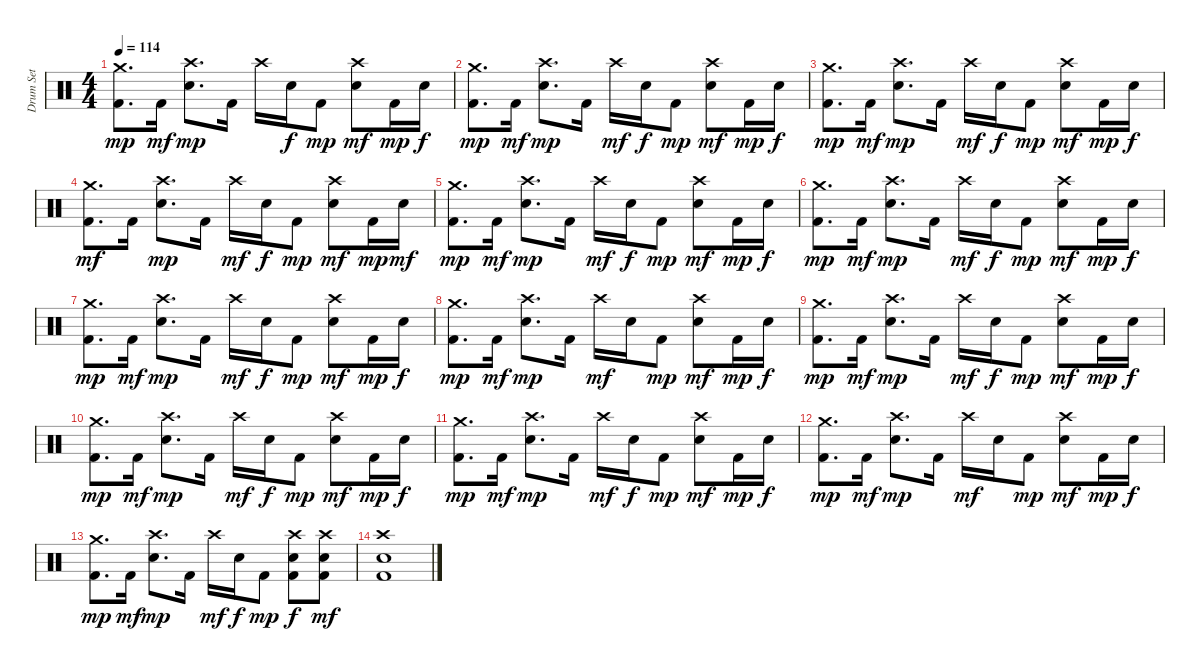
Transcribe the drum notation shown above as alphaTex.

\track ("Drum Set" "Drum Set") {instrument percussion}
\staff {score}
\articulation defaults
\ts (4 4)
\tempo 114
\clef neutral
\ks c
("Kick (hit) 2" "Crash medium (hit)").8{d dy mp} "Kick (hit) 2".16{dy mf} ("Snare (hit) 2" "Crash high (hit)").8{d dy mp} "Kick (hit) 2".16 "Crash high (hit)".16 "Snare (hit) 2".16{dy f} "Kick (hit) 2".8{dy mp} ("Snare (hit) 2" "Crash high (hit)").8{dy mf} "Kick (hit) 2".16{dy mp} "Snare (hit) 2".16{dy f} |
("Kick (hit) 2" "Crash medium (hit)").8{d dy mp} "Kick (hit) 2".16{dy mf} ("Snare (hit) 2" "Crash high (hit)").8{d dy mp} "Kick (hit) 2".16 "Crash high (hit)".16{dy mf} "Snare (hit) 2".16{dy f} "Kick (hit) 2".8{dy mp} ("Snare (hit) 2" "Crash high (hit)").8{dy mf} "Kick (hit) 2".16{dy mp} "Snare (hit) 2".16{dy f} |
("Kick (hit) 2" "Crash medium (hit)").8{d dy mp} "Kick (hit) 2".16{dy mf} ("Snare (hit) 2" "Crash high (hit)").8{d dy mp} "Kick (hit) 2".16 "Crash high (hit)".16{dy mf} "Snare (hit) 2".16{dy f} "Kick (hit) 2".8{dy mp} ("Snare (hit) 2" "Crash high (hit)").8{dy mf} "Kick (hit) 2".16{dy mp} "Snare (hit) 2".16{dy f} |
("Kick (hit) 2" "Crash medium (hit)").8{d dy mf} "Kick (hit) 2".16 ("Snare (hit) 2" "Crash high (hit)").8{d dy mp} "Kick (hit) 2".16 "Crash high (hit)".16{dy mf} "Snare (hit) 2".16{dy f} "Kick (hit) 2".8{dy mp} ("Snare (hit) 2" "Crash high (hit)").8{dy mf} "Kick (hit) 2".16{dy mp} "Snare (hit) 2".16{dy mf} |
("Kick (hit) 2" "Crash medium (hit)").8{d dy mp} "Kick (hit) 2".16{dy mf} ("Snare (hit) 2" "Crash high (hit)").8{d dy mp} "Kick (hit) 2".16 "Crash high (hit)".16{dy mf} "Snare (hit) 2".16{dy f} "Kick (hit) 2".8{dy mp} ("Snare (hit) 2" "Crash high (hit)").8{dy mf} "Kick (hit) 2".16{dy mp} "Snare (hit) 2".16{dy f} |
("Kick (hit) 2" "Crash medium (hit)").8{d dy mp} "Kick (hit) 2".16{dy mf} ("Snare (hit) 2" "Crash high (hit)").8{d dy mp} "Kick (hit) 2".16 "Crash high (hit)".16{dy mf} "Snare (hit) 2".16{dy f} "Kick (hit) 2".8{dy mp} ("Snare (hit) 2" "Crash high (hit)").8{dy mf} "Kick (hit) 2".16{dy mp} "Snare (hit) 2".16{dy f} |
("Kick (hit) 2" "Crash medium (hit)").8{d dy mp} "Kick (hit) 2".16{dy mf} ("Snare (hit) 2" "Crash high (hit)").8{d dy mp} "Kick (hit) 2".16 "Crash high (hit)".16{dy mf} "Snare (hit) 2".16{dy f} "Kick (hit) 2".8{dy mp} ("Snare (hit) 2" "Crash high (hit)").8{dy mf} "Kick (hit) 2".16{dy mp} "Snare (hit) 2".16{dy f} |
("Kick (hit) 2" "Crash medium (hit)").8{d dy mp} "Kick (hit) 2".16{dy mf} ("Snare (hit) 2" "Crash high (hit)").8{d dy mp} "Kick (hit) 2".16 "Crash high (hit)".16{dy mf} "Snare (hit) 2".16 "Kick (hit) 2".8{dy mp} ("Snare (hit) 2" "Crash high (hit)").8{dy mf} "Kick (hit) 2".16{dy mp} "Snare (hit) 2".16{dy f} |
("Kick (hit) 2" "Crash medium (hit)").8{d dy mp} "Kick (hit) 2".16{dy mf} ("Snare (hit) 2" "Crash high (hit)").8{d dy mp} "Kick (hit) 2".16 "Crash high (hit)".16{dy mf} "Snare (hit) 2".16{dy f} "Kick (hit) 2".8{dy mp} ("Snare (hit) 2" "Crash high (hit)").8{dy mf} "Kick (hit) 2".16{dy mp} "Snare (hit) 2".16{dy f} |
("Kick (hit) 2" "Crash medium (hit)").8{d dy mp} "Kick (hit) 2".16{dy mf} ("Snare (hit) 2" "Crash high (hit)").8{d dy mp} "Kick (hit) 2".16 "Crash high (hit)".16{dy mf} "Snare (hit) 2".16{dy f} "Kick (hit) 2".8{dy mp} ("Snare (hit) 2" "Crash high (hit)").8{dy mf} "Kick (hit) 2".16{dy mp} "Snare (hit) 2".16{dy f} |
("Kick (hit) 2" "Crash medium (hit)").8{d dy mp} "Kick (hit) 2".16{dy mf} ("Snare (hit) 2" "Crash high (hit)").8{d dy mp} "Kick (hit) 2".16 "Crash high (hit)".16{dy mf} "Snare (hit) 2".16{dy f} "Kick (hit) 2".8{dy mp} ("Snare (hit) 2" "Crash high (hit)").8{dy mf} "Kick (hit) 2".16{dy mp} "Snare (hit) 2".16{dy f} |
("Kick (hit) 2" "Crash medium (hit)").8{d dy mp} "Kick (hit) 2".16{dy mf} ("Snare (hit) 2" "Crash high (hit)").8{d dy mp} "Kick (hit) 2".16 "Crash high (hit)".16{dy mf} "Snare (hit) 2".16 "Kick (hit) 2".8{dy mp} ("Snare (hit) 2" "Crash high (hit)").8{dy mf} "Kick (hit) 2".16{dy mp} "Snare (hit) 2".16{dy f} |
("Kick (hit) 2" "Crash medium (hit)").8{d dy mp} "Kick (hit) 2".16{dy mf} ("Snare (hit) 2" "Crash high (hit)").8{d dy mp} "Kick (hit) 2".16 "Crash high (hit)".16{dy mf} "Snare (hit) 2".16{dy f} "Kick (hit) 2".8{dy mp} ("Kick (hit) 2" "Snare (hit) 2" "Crash high (hit)").8{dy f} ("Kick (hit) 2" "Snare (hit) 2" "Crash high (hit)").8{dy mf} |
("Kick (hit) 2" "Snare (hit) 2" "Crash high (hit)").1
